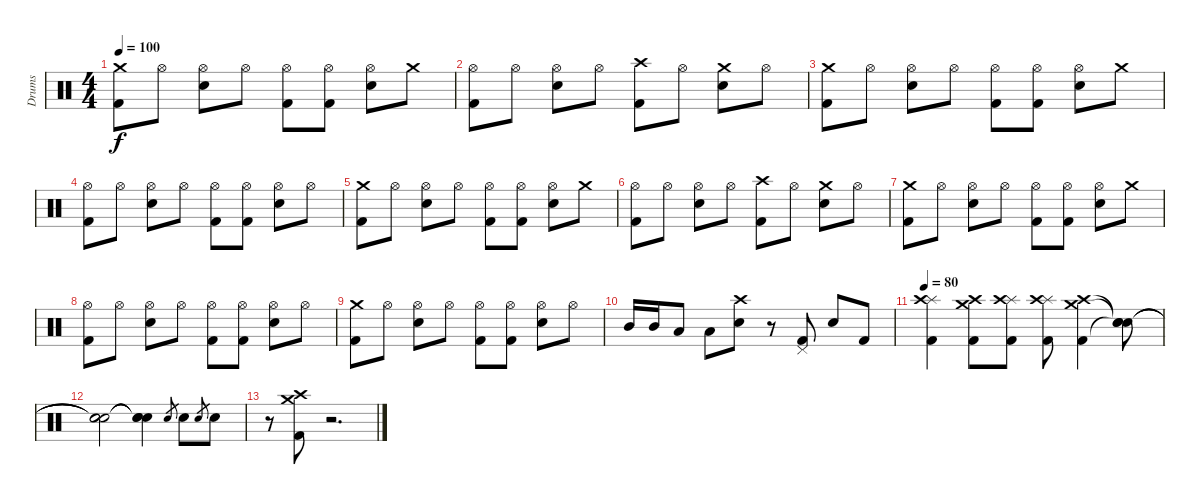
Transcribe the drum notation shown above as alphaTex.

\track ("Drums" "Drums") {instrument percussion}
\staff {score}
\articulation defaults
\ts (4 4)
\tempo 100
\clef neutral
\ks c
("Crash medium (hit)" "Kick (hit) 2").8{dy f} "Hi-Hat (open)".8 ("Hi-Hat (open)" "Electric Snare (hit)").8 "Hi-Hat (open)".8 ("Hi-Hat (open)" "Kick (hit) 2").8 ("Hi-Hat (open)" "Kick (hit) 2").8 ("Hi-Hat (open)" "Electric Snare (hit)").8 "Crash medium (hit)".8 |
("Hi-Hat (open)" "Kick (hit) 2").8 "Hi-Hat (open)".8 ("Hi-Hat (open)" "Electric Snare (hit)").8 "Hi-Hat (open)".8 ("Crash high (hit)" "Kick (hit) 2").8 "Hi-Hat (open)".8 ("Crash medium (hit)" "Electric Snare (hit)").8 "Hi-Hat (open)".8 |
("Crash medium (hit)" "Kick (hit) 2").8 "Hi-Hat (open)".8 ("Hi-Hat (open)" "Electric Snare (hit)").8 "Hi-Hat (open)".8 ("Hi-Hat (open)" "Kick (hit) 2").8 ("Hi-Hat (open)" "Kick (hit) 2").8 ("Hi-Hat (open)" "Electric Snare (hit)").8 "Crash medium (hit)".8 |
("Hi-Hat (open)" "Kick (hit) 2").8 "Hi-Hat (open)".8 ("Hi-Hat (open)" "Electric Snare (hit)").8 "Hi-Hat (open)".8 ("Hi-Hat (open)" "Kick (hit) 2").8 ("Hi-Hat (open)" "Kick (hit) 2").8 ("Hi-Hat (open)" "Electric Snare (hit)").8 "Hi-Hat (open)".8 |
("Crash medium (hit)" "Kick (hit) 2").8 "Hi-Hat (open)".8 ("Hi-Hat (open)" "Electric Snare (hit)").8 "Hi-Hat (open)".8 ("Hi-Hat (open)" "Kick (hit) 2").8 ("Hi-Hat (open)" "Kick (hit) 2").8 ("Hi-Hat (open)" "Electric Snare (hit)").8 "Crash medium (hit)".8 |
("Hi-Hat (open)" "Kick (hit) 2").8 "Hi-Hat (open)".8 ("Hi-Hat (open)" "Electric Snare (hit)").8 "Hi-Hat (open)".8 ("Crash high (hit)" "Kick (hit) 2").8 "Hi-Hat (open)".8 ("Crash medium (hit)" "Electric Snare (hit)").8 "Hi-Hat (open)".8 |
("Crash medium (hit)" "Kick (hit) 2").8 "Hi-Hat (open)".8 ("Hi-Hat (open)" "Electric Snare (hit)").8 "Hi-Hat (open)".8 ("Hi-Hat (open)" "Kick (hit) 2").8 ("Hi-Hat (open)" "Kick (hit) 2").8 ("Hi-Hat (open)" "Electric Snare (hit)").8 "Crash medium (hit)".8 |
("Hi-Hat (open)" "Kick (hit) 2").8 "Hi-Hat (open)".8 ("Hi-Hat (open)" "Electric Snare (hit)").8 "Hi-Hat (open)".8 ("Hi-Hat (open)" "Kick (hit) 2").8 ("Hi-Hat (open)" "Kick (hit) 2").8 ("Hi-Hat (open)" "Electric Snare (hit)").8 "Hi-Hat (open)".8 |
("Crash medium (hit)" "Kick (hit) 2").8 "Hi-Hat (open)".8 ("Hi-Hat (open)" "Electric Snare (hit)").8 "Hi-Hat (open)".8 ("Hi-Hat (open)" "Kick (hit) 2").8 ("Hi-Hat (open)" "Kick (hit) 2").8 ("Hi-Hat (open)" "Electric Snare (hit)").8 "Hi-Hat (open)".8 |
"Mid Tom (hit)".16 "Mid Tom (hit)".16 "Low Tom (hit)".8 "Low Tom (hit)".8 ("Crash high (hit)" "Electric Snare (hit)").8 r.8 ("Pedal Hi-Hat (hit)" "Kick (hit) 2").8 "Electric Snare (hit)".8 "Kick (hit) 2".8 |
\tempo 80
("Splash (hit)" "Crash high (hit)" "Kick (hit) 2").4 ("Crash medium (hit)" "Crash high (hit)" "Kick (hit) 2").8 ("Splash (hit)" "Crash high (hit)" "Kick (hit) 2").8 ("Splash (hit)" "Crash high (hit)" "Kick (hit) 2").8 ("Crash medium (hit)" "Crash high (hit)" "Kick (hit) 2").4 ("Snare (hit)"{t} "Snare (hit)"{t} "Snare (hit)"{t}).8 |
("Snare (hit)"{t} "Snare (hit)"{t} "Snare (hit)"{t}).2 ("Snare (hit)"{t} "Snare (hit)"{t} "Snare (hit)"{t}).4 "Electric Snare (hit)".8{gr} "Electric Snare (hit)".8 "Electric Snare (hit)".8{gr} "Electric Snare (hit)".8 |
r.8 ("Crash medium (hit)" "Crash high (hit)" "Kick (hit) 2").8 r.2{d}
